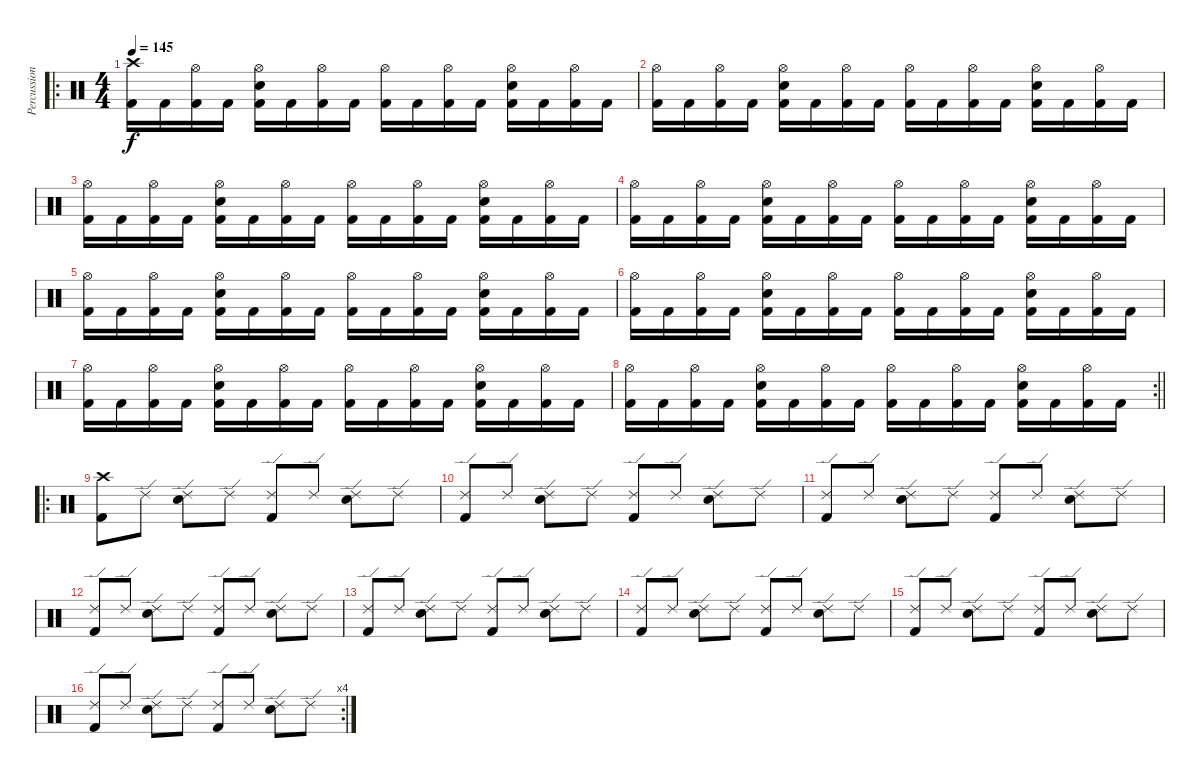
\track ("Percussion" "Percussion") {instrument percussion}
\staff {score}
\articulation defaults
\ro
\ts (4 4)
\tempo 145
\clef neutral
\ks c
("Crash high (hit)" "Kick (hit) 2").16{dy f} "Kick (hit) 2".16 ("Hi-Hat (open)" "Kick (hit) 2").16 "Kick (hit) 2".16 ("Hi-Hat (open)" "Electric Snare (hit)" "Kick (hit) 2").16 "Kick (hit) 2".16 ("Hi-Hat (open)" "Kick (hit) 2").16 "Kick (hit) 2".16 ("Hi-Hat (open)" "Kick (hit) 2").16 "Kick (hit) 2".16 ("Hi-Hat (open)" "Kick (hit) 2").16 "Kick (hit) 2".16 ("Hi-Hat (open)" "Electric Snare (hit)" "Kick (hit) 2").16 "Kick (hit) 2".16 ("Hi-Hat (open)" "Kick (hit) 2").16 "Kick (hit) 2".16 |
("Hi-Hat (open)" "Kick (hit) 2").16 "Kick (hit) 2".16 ("Hi-Hat (open)" "Kick (hit) 2").16 "Kick (hit) 2".16 ("Hi-Hat (open)" "Electric Snare (hit)" "Kick (hit) 2").16 "Kick (hit) 2".16 ("Hi-Hat (open)" "Kick (hit) 2").16 "Kick (hit) 2".16 ("Hi-Hat (open)" "Kick (hit) 2").16 "Kick (hit) 2".16 ("Hi-Hat (open)" "Kick (hit) 2").16 "Kick (hit) 2".16 ("Hi-Hat (open)" "Electric Snare (hit)" "Kick (hit) 2").16 "Kick (hit) 2".16 ("Hi-Hat (open)" "Kick (hit) 2").16 "Kick (hit) 2".16 |
("Hi-Hat (open)" "Kick (hit) 2").16 "Kick (hit) 2".16 ("Hi-Hat (open)" "Kick (hit) 2").16 "Kick (hit) 2".16 ("Hi-Hat (open)" "Electric Snare (hit)" "Kick (hit) 2").16 "Kick (hit) 2".16 ("Hi-Hat (open)" "Kick (hit) 2").16 "Kick (hit) 2".16 ("Hi-Hat (open)" "Kick (hit) 2").16 "Kick (hit) 2".16 ("Hi-Hat (open)" "Kick (hit) 2").16 "Kick (hit) 2".16 ("Hi-Hat (open)" "Electric Snare (hit)" "Kick (hit) 2").16 "Kick (hit) 2".16 ("Hi-Hat (open)" "Kick (hit) 2").16 "Kick (hit) 2".16 |
("Hi-Hat (open)" "Kick (hit) 2").16 "Kick (hit) 2".16 ("Hi-Hat (open)" "Kick (hit) 2").16 "Kick (hit) 2".16 ("Hi-Hat (open)" "Electric Snare (hit)" "Kick (hit) 2").16 "Kick (hit) 2".16 ("Hi-Hat (open)" "Kick (hit) 2").16 "Kick (hit) 2".16 ("Hi-Hat (open)" "Kick (hit) 2").16 "Kick (hit) 2".16 ("Hi-Hat (open)" "Kick (hit) 2").16 "Kick (hit) 2".16 ("Hi-Hat (open)" "Electric Snare (hit)" "Kick (hit) 2").16 "Kick (hit) 2".16 ("Hi-Hat (open)" "Kick (hit) 2").16 "Kick (hit) 2".16 |
("Hi-Hat (open)" "Kick (hit) 2").16 "Kick (hit) 2".16 ("Hi-Hat (open)" "Kick (hit) 2").16 "Kick (hit) 2".16 ("Hi-Hat (open)" "Electric Snare (hit)" "Kick (hit) 2").16 "Kick (hit) 2".16 ("Hi-Hat (open)" "Kick (hit) 2").16 "Kick (hit) 2".16 ("Hi-Hat (open)" "Kick (hit) 2").16 "Kick (hit) 2".16 ("Hi-Hat (open)" "Kick (hit) 2").16 "Kick (hit) 2".16 ("Hi-Hat (open)" "Electric Snare (hit)" "Kick (hit) 2").16 "Kick (hit) 2".16 ("Hi-Hat (open)" "Kick (hit) 2").16 "Kick (hit) 2".16 |
("Hi-Hat (open)" "Kick (hit) 2").16 "Kick (hit) 2".16 ("Hi-Hat (open)" "Kick (hit) 2").16 "Kick (hit) 2".16 ("Hi-Hat (open)" "Electric Snare (hit)" "Kick (hit) 2").16 "Kick (hit) 2".16 ("Hi-Hat (open)" "Kick (hit) 2").16 "Kick (hit) 2".16 ("Hi-Hat (open)" "Kick (hit) 2").16 "Kick (hit) 2".16 ("Hi-Hat (open)" "Kick (hit) 2").16 "Kick (hit) 2".16 ("Hi-Hat (open)" "Electric Snare (hit)" "Kick (hit) 2").16 "Kick (hit) 2".16 ("Hi-Hat (open)" "Kick (hit) 2").16 "Kick (hit) 2".16 |
("Hi-Hat (open)" "Kick (hit) 2").16 "Kick (hit) 2".16 ("Hi-Hat (open)" "Kick (hit) 2").16 "Kick (hit) 2".16 ("Hi-Hat (open)" "Electric Snare (hit)" "Kick (hit) 2").16 "Kick (hit) 2".16 ("Hi-Hat (open)" "Kick (hit) 2").16 "Kick (hit) 2".16 ("Hi-Hat (open)" "Kick (hit) 2").16 "Kick (hit) 2".16 ("Hi-Hat (open)" "Kick (hit) 2").16 "Kick (hit) 2".16 ("Hi-Hat (open)" "Electric Snare (hit)" "Kick (hit) 2").16 "Kick (hit) 2".16 ("Hi-Hat (open)" "Kick (hit) 2").16 "Kick (hit) 2".16 |
\rc 2
\barLineRight lightlight
("Hi-Hat (open)" "Kick (hit) 2").16 "Kick (hit) 2".16 ("Hi-Hat (open)" "Kick (hit) 2").16 "Kick (hit) 2".16 ("Hi-Hat (open)" "Electric Snare (hit)" "Kick (hit) 2").16 "Kick (hit) 2".16 ("Hi-Hat (open)" "Kick (hit) 2").16 "Kick (hit) 2".16 ("Hi-Hat (open)" "Kick (hit) 2").16 "Kick (hit) 2".16 ("Hi-Hat (open)" "Kick (hit) 2").16 "Kick (hit) 2".16 ("Hi-Hat (open)" "Electric Snare (hit)" "Kick (hit) 2").16 "Kick (hit) 2".16 ("Hi-Hat (open)" "Kick (hit) 2").16 "Kick (hit) 2".16 |
\ro
("Crash high (hit)" "Kick (hit) 2").8 "Ride (edge) 2".8 ("Ride (edge) 2" "Electric Snare (hit)").8 "Ride (edge) 2".8 ("Ride (edge) 2" "Kick (hit) 2").8 "Ride (edge) 2".8 ("Ride (edge) 2" "Electric Snare (hit)").8 "Ride (edge) 2".8 |
("Ride (edge) 2" "Kick (hit) 2").8 "Ride (edge) 2".8 ("Ride (edge) 2" "Electric Snare (hit)").8 "Ride (edge) 2".8 ("Ride (edge) 2" "Kick (hit) 2").8 "Ride (edge) 2".8 ("Ride (edge) 2" "Electric Snare (hit)").8 "Ride (edge) 2".8 |
("Ride (edge) 2" "Kick (hit) 2").8 "Ride (edge) 2".8 ("Ride (edge) 2" "Electric Snare (hit)").8 "Ride (edge) 2".8 ("Ride (edge) 2" "Kick (hit) 2").8 "Ride (edge) 2".8 ("Ride (edge) 2" "Electric Snare (hit)").8 "Ride (edge) 2".8 |
("Ride (edge) 2" "Kick (hit) 2").8 "Ride (edge) 2".8 ("Ride (edge) 2" "Electric Snare (hit)").8 "Ride (edge) 2".8 ("Ride (edge) 2" "Kick (hit) 2").8 "Ride (edge) 2".8 ("Ride (edge) 2" "Electric Snare (hit)").8 "Ride (edge) 2".8 |
("Ride (edge) 2" "Kick (hit) 2").8 "Ride (edge) 2".8 ("Ride (edge) 2" "Electric Snare (hit)").8 "Ride (edge) 2".8 ("Ride (edge) 2" "Kick (hit) 2").8 "Ride (edge) 2".8 ("Ride (edge) 2" "Electric Snare (hit)").8 "Ride (edge) 2".8 |
("Ride (edge) 2" "Kick (hit) 2").8 "Ride (edge) 2".8 ("Ride (edge) 2" "Electric Snare (hit)").8 "Ride (edge) 2".8 ("Ride (edge) 2" "Kick (hit) 2").8 "Ride (edge) 2".8 ("Ride (edge) 2" "Electric Snare (hit)").8 "Ride (edge) 2".8 |
("Ride (edge) 2" "Kick (hit) 2").8 "Ride (edge) 2".8 ("Ride (edge) 2" "Electric Snare (hit)").8 "Ride (edge) 2".8 ("Ride (edge) 2" "Kick (hit) 2").8 "Ride (edge) 2".8 ("Ride (edge) 2" "Electric Snare (hit)").8 "Ride (edge) 2".8 |
\rc 4
("Ride (edge) 2" "Kick (hit) 2").8 "Ride (edge) 2".8 ("Ride (edge) 2" "Electric Snare (hit)").8 "Ride (edge) 2".8 ("Ride (edge) 2" "Kick (hit) 2").8 "Ride (edge) 2".8 ("Ride (edge) 2" "Electric Snare (hit)").8 "Ride (edge) 2".8
